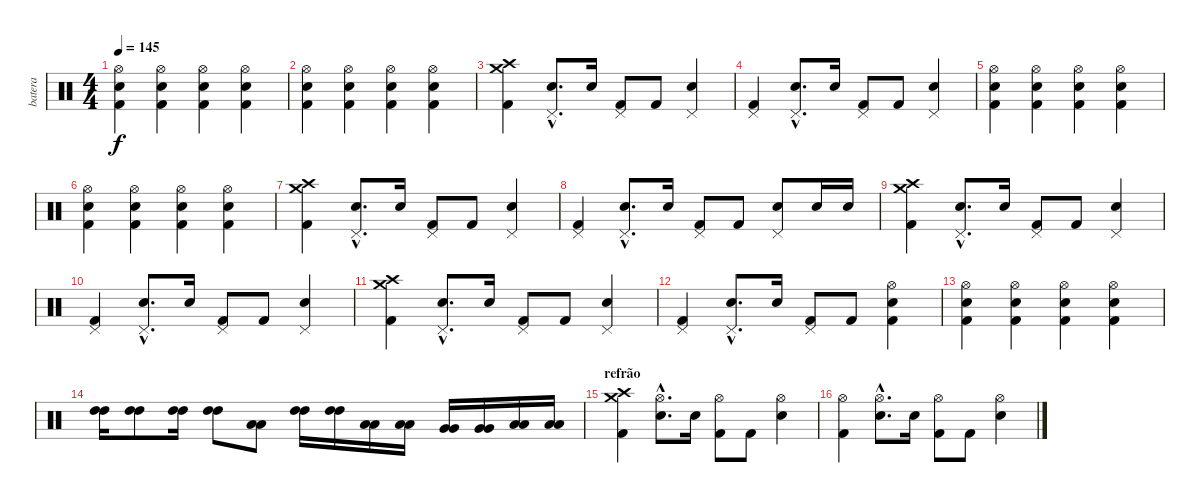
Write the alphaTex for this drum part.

\track ("batera" "batera") {instrument percussion}
\staff {score}
\articulation defaults
\ts (4 4)
\tempo 145
\clef neutral
\ks c
("Snare (hit) 2" "Kick (hit) 2" "Hi-Hat (open)").4{dy f} ("Snare (hit) 2" "Kick (hit) 2" "Hi-Hat (open)").4 ("Snare (hit) 2" "Kick (hit) 2" "Hi-Hat (open)").4 ("Snare (hit) 2" "Kick (hit) 2" "Hi-Hat (open)").4 |
("Snare (hit) 2" "Kick (hit) 2" "Hi-Hat (open)").4 ("Snare (hit) 2" "Kick (hit) 2" "Hi-Hat (open)").4 ("Snare (hit) 2" "Kick (hit) 2" "Hi-Hat (open)").4 ("Snare (hit) 2" "Kick (hit) 2" "Hi-Hat (open)").4 |
("Crash high (hit)" "Crash medium (hit)" "Kick (hit) 2").4 ("Snare (hit) 2"{hac} "Pedal Hi-Hat (hit)"{hac}).8{d} "Snare (hit) 2".16 ("Kick (hit) 2" "Pedal Hi-Hat (hit)").8 "Kick (hit) 2".8 ("Snare (hit) 2" "Pedal Hi-Hat (hit)").4 |
("Kick (hit) 2" "Pedal Hi-Hat (hit)").4 ("Snare (hit) 2"{hac} "Pedal Hi-Hat (hit)"{hac}).8{d} "Snare (hit) 2".16 ("Kick (hit) 2" "Pedal Hi-Hat (hit)").8 "Kick (hit) 2".8 ("Snare (hit) 2" "Pedal Hi-Hat (hit)").4 |
("Snare (hit) 2" "Kick (hit) 2" "Hi-Hat (open)").4 ("Snare (hit) 2" "Kick (hit) 2" "Hi-Hat (open)").4 ("Snare (hit) 2" "Kick (hit) 2" "Hi-Hat (open)").4 ("Snare (hit) 2" "Kick (hit) 2" "Hi-Hat (open)").4 |
("Snare (hit) 2" "Kick (hit) 2" "Hi-Hat (open)").4 ("Snare (hit) 2" "Kick (hit) 2" "Hi-Hat (open)").4 ("Snare (hit) 2" "Kick (hit) 2" "Hi-Hat (open)").4 ("Snare (hit) 2" "Kick (hit) 2" "Hi-Hat (open)").4 |
("Crash high (hit)" "Crash medium (hit)" "Kick (hit) 2").4 ("Snare (hit) 2"{hac} "Pedal Hi-Hat (hit)"{hac}).8{d} "Snare (hit) 2".16 ("Kick (hit) 2" "Pedal Hi-Hat (hit)").8 "Kick (hit) 2".8 ("Snare (hit) 2" "Pedal Hi-Hat (hit)").4 |
("Kick (hit) 2" "Pedal Hi-Hat (hit)").4 ("Snare (hit) 2"{hac} "Pedal Hi-Hat (hit)"{hac}).8{d} "Snare (hit) 2".16 ("Kick (hit) 2" "Pedal Hi-Hat (hit)").8 "Kick (hit) 2".8 ("Snare (hit) 2" "Pedal Hi-Hat (hit)").8 "Snare (hit) 2".16 "Snare (hit) 2".16 |
("Crash high (hit)" "Crash medium (hit)" "Kick (hit) 2").4 ("Snare (hit) 2"{hac} "Pedal Hi-Hat (hit)"{hac}).8{d} "Snare (hit) 2".16 ("Kick (hit) 2" "Pedal Hi-Hat (hit)").8 "Kick (hit) 2".8 ("Snare (hit) 2" "Pedal Hi-Hat (hit)").4 |
("Kick (hit) 2" "Pedal Hi-Hat (hit)").4 ("Snare (hit) 2"{hac} "Pedal Hi-Hat (hit)"{hac}).8{d} "Snare (hit) 2".16 ("Kick (hit) 2" "Pedal Hi-Hat (hit)").8 "Kick (hit) 2".8 ("Snare (hit) 2" "Pedal Hi-Hat (hit)").4 |
("Crash high (hit)" "Crash medium (hit)" "Kick (hit) 2").4 ("Snare (hit) 2"{hac} "Pedal Hi-Hat (hit)"{hac}).8{d} "Snare (hit) 2".16 ("Kick (hit) 2" "Pedal Hi-Hat (hit)").8 "Kick (hit) 2".8 ("Snare (hit) 2" "Pedal Hi-Hat (hit)").4 |
("Kick (hit) 2" "Pedal Hi-Hat (hit)").4 ("Snare (hit) 2"{hac} "Pedal Hi-Hat (hit)"{hac}).8{d} "Snare (hit) 2".16 ("Kick (hit) 2" "Pedal Hi-Hat (hit)").8 "Kick (hit) 2".8 ("Snare (hit) 2" "Kick (hit) 2" "Hi-Hat (open)").4 |
("Snare (hit) 2" "Kick (hit) 2" "Hi-Hat (open)").4 ("Snare (hit) 2" "Kick (hit) 2" "Hi-Hat (open)").4 ("Snare (hit) 2" "Kick (hit) 2" "Hi-Hat (open)").4 ("Snare (hit) 2" "Kick (hit) 2" "Hi-Hat (open)").4 |
("High Tom (hit)" "High Tom (hit)").16 ("High Tom (hit)" "High Tom (hit)").8 ("High Tom (hit)" "High Tom (hit)").16 ("High Tom (hit)" "High Tom (hit)").8 ("Low Tom (hit)" "Low Tom (hit)").8 ("High Tom (hit)" "High Tom (hit)").16 ("High Tom (hit)" "High Tom (hit)").16 ("Low Tom (hit)" "Low Tom (hit)").16 ("Low Tom (hit)" "Low Tom (hit)").16 ("Very Low Tom (hit)" "Very Low Tom (hit)").16 ("Very Low Tom (hit)" "Very Low Tom (hit)").16 ("Low Floor Tom (hit)" "Low Floor Tom (hit)").16 ("Low Floor Tom (hit)" "Low Floor Tom (hit)").16 |
\section ("" "refrão")
("Crash high (hit)" "Crash medium (hit)" "Kick (hit) 2").4 ("Snare (hit) 2"{hac} "Hi-Hat (open)"{hac}).8{d} "Snare (hit) 2".16 ("Kick (hit) 2" "Hi-Hat (open)").8 "Kick (hit) 2".8 ("Snare (hit) 2" "Hi-Hat (open)").4 |
("Kick (hit) 2" "Hi-Hat (open)").4 ("Snare (hit) 2"{hac} "Hi-Hat (open)"{hac}).8{d} "Snare (hit) 2".16 ("Kick (hit) 2" "Hi-Hat (open)").8 "Kick (hit) 2".8 ("Snare (hit) 2" "Hi-Hat (open)").4
